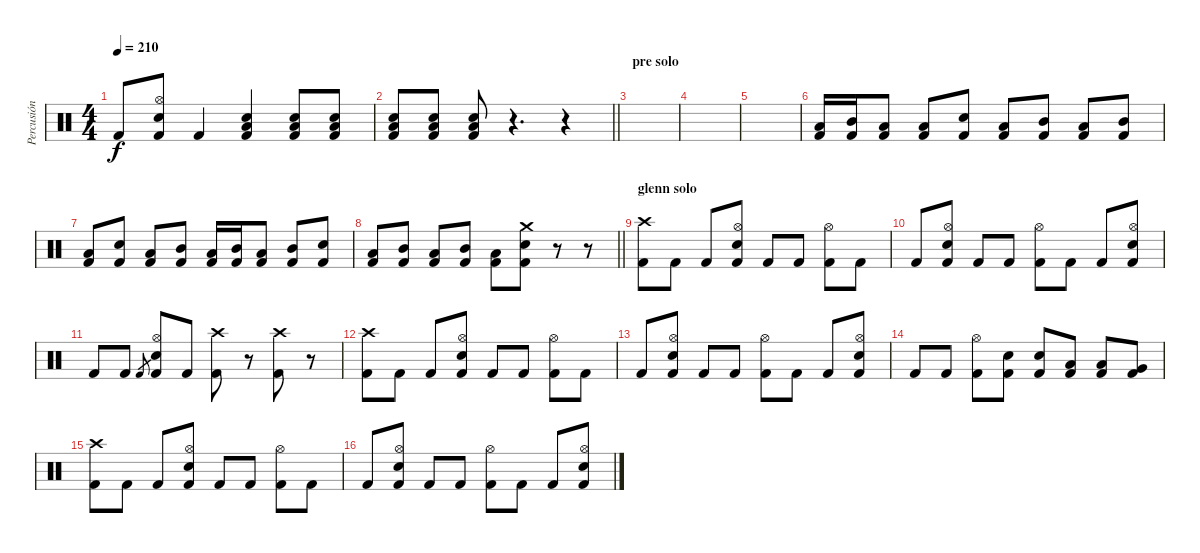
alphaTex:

\track ("Percusión" "Percusión") {instrument percussion}
\staff {score}
\articulation defaults
\ts (4 4)
\tempo 210
\clef neutral
\ks c "Kick (hit) 2".8{dy f}
("Hi-Hat (open)" "Snare (hit) 2" "Kick (hit) 2").8 "Kick (hit) 2".4 ("Low Tom (hit)" "Snare (hit) 2" "Kick (hit) 2").4 ("Low Tom (hit)" "Snare (hit) 2" "Kick (hit) 2").8 ("Low Tom (hit)" "Snare (hit) 2" "Kick (hit) 2").8 |
\barLineRight lightlight
("Low Tom (hit)" "Snare (hit) 2" "Kick (hit) 2").8 ("Low Tom (hit)" "Snare (hit) 2" "Kick (hit) 2").8 ("Low Tom (hit)" "Snare (hit) 2" "Kick (hit) 2").8 r.4{d} r.4 |
\section ("" "pre solo")
|
|
|
("Low Tom (hit)" "Kick (hit) 2").16 ("Mid Tom (hit)" "Kick (hit) 2").16 ("Low Tom (hit)" "Kick (hit) 2").8 ("Low Tom (hit)" "Kick (hit) 2").8 ("Snare (hit) 2" "Kick (hit) 2").8 ("Low Tom (hit)" "Kick (hit) 2").8 ("Mid Tom (hit)" "Kick (hit) 2").8 ("Low Tom (hit)" "Kick (hit) 2").8 ("Mid Tom (hit)" "Kick (hit) 2").8 |
("Low Tom (hit)" "Kick (hit) 2").8 ("Snare (hit) 2" "Kick (hit) 2").8 ("Low Tom (hit)" "Kick (hit) 2").8 ("Mid Tom (hit)" "Kick (hit) 2").8 ("Low Tom (hit)" "Kick (hit) 2").16 ("Mid Tom (hit)" "Kick (hit) 2").16 ("Low Tom (hit)" "Kick (hit) 2").8 ("Mid Tom (hit)" "Kick (hit) 2").8 ("Snare (hit) 2" "Kick (hit) 2").8 |
\barLineRight lightlight
("Low Tom (hit)" "Kick (hit) 2").8 ("Mid Tom (hit)" "Kick (hit) 2").8 ("Low Tom (hit)" "Kick (hit) 2").8 ("Mid Tom (hit)" "Kick (hit) 2").8 ("Low Tom (hit)" "Kick (hit) 2").8 ("Crash medium (hit)" "Snare (hit) 2" "Kick (hit) 2").8 r.8 r.8 |
\section ("" "glenn solo")
("Crash high (hit)" "Kick (hit) 2").8 "Kick (hit) 2".8 "Kick (hit) 2".8 ("Hi-Hat (open)" "Snare (hit) 2" "Kick (hit) 2").8 "Kick (hit) 2".8 "Kick (hit) 2".8 ("Hi-Hat (open)" "Kick (hit) 2").8 "Kick (hit) 2".8 |
"Kick (hit) 2".8 ("Hi-Hat (open)" "Snare (hit) 2" "Kick (hit) 2").8 "Kick (hit) 2".8 "Kick (hit) 2".8 ("Hi-Hat (open)" "Kick (hit) 2").8 "Kick (hit) 2".8 "Kick (hit) 2".8 ("Hi-Hat (open)" "Snare (hit) 2" "Kick (hit) 2").8 |
"Kick (hit) 2".8 "Kick (hit) 2".8 "Kick (hit) 2".8{gr} ("Hi-Hat (open)" "Snare (hit) 2" "Kick (hit) 2").8 "Kick (hit) 2".8 ("Crash high (hit)" "Kick (hit) 2").8 r.8 ("Crash high (hit)" "Kick (hit) 2").8 r.8 |
("Crash high (hit)" "Kick (hit) 2").8 "Kick (hit) 2".8 "Kick (hit) 2".8 ("Hi-Hat (open)" "Snare (hit) 2" "Kick (hit) 2").8 "Kick (hit) 2".8 "Kick (hit) 2".8 ("Hi-Hat (open)" "Kick (hit) 2").8 "Kick (hit) 2".8 |
"Kick (hit) 2".8 ("Hi-Hat (open)" "Snare (hit) 2" "Kick (hit) 2").8 "Kick (hit) 2".8 "Kick (hit) 2".8 ("Hi-Hat (open)" "Kick (hit) 2").8 "Kick (hit) 2".8 "Kick (hit) 2".8 ("Hi-Hat (open)" "Snare (hit) 2" "Kick (hit) 2").8 |
"Kick (hit) 2".8 "Kick (hit) 2".8 ("Hi-Hat (open)" "Kick (hit) 2").8 ("Electric Snare (hit)" "Kick (hit) 2").8 ("Electric Snare (hit)" "Kick (hit) 2").8 ("Low Tom (hit)" "Kick (hit) 2").8 ("Low Tom (hit)" "Kick (hit) 2").8 ("Very Low Tom (hit)" "Kick (hit) 2").8 |
("Crash high (hit)" "Kick (hit) 2").8 "Kick (hit) 2".8 "Kick (hit) 2".8 ("Hi-Hat (open)" "Snare (hit) 2" "Kick (hit) 2").8 "Kick (hit) 2".8 "Kick (hit) 2".8 ("Hi-Hat (open)" "Kick (hit) 2").8 "Kick (hit) 2".8 |
"Kick (hit) 2".8 ("Hi-Hat (open)" "Snare (hit) 2" "Kick (hit) 2").8 "Kick (hit) 2".8 "Kick (hit) 2".8 ("Hi-Hat (open)" "Kick (hit) 2").8 "Kick (hit) 2".8 "Kick (hit) 2".8 ("Hi-Hat (open)" "Snare (hit) 2" "Kick (hit) 2").8
